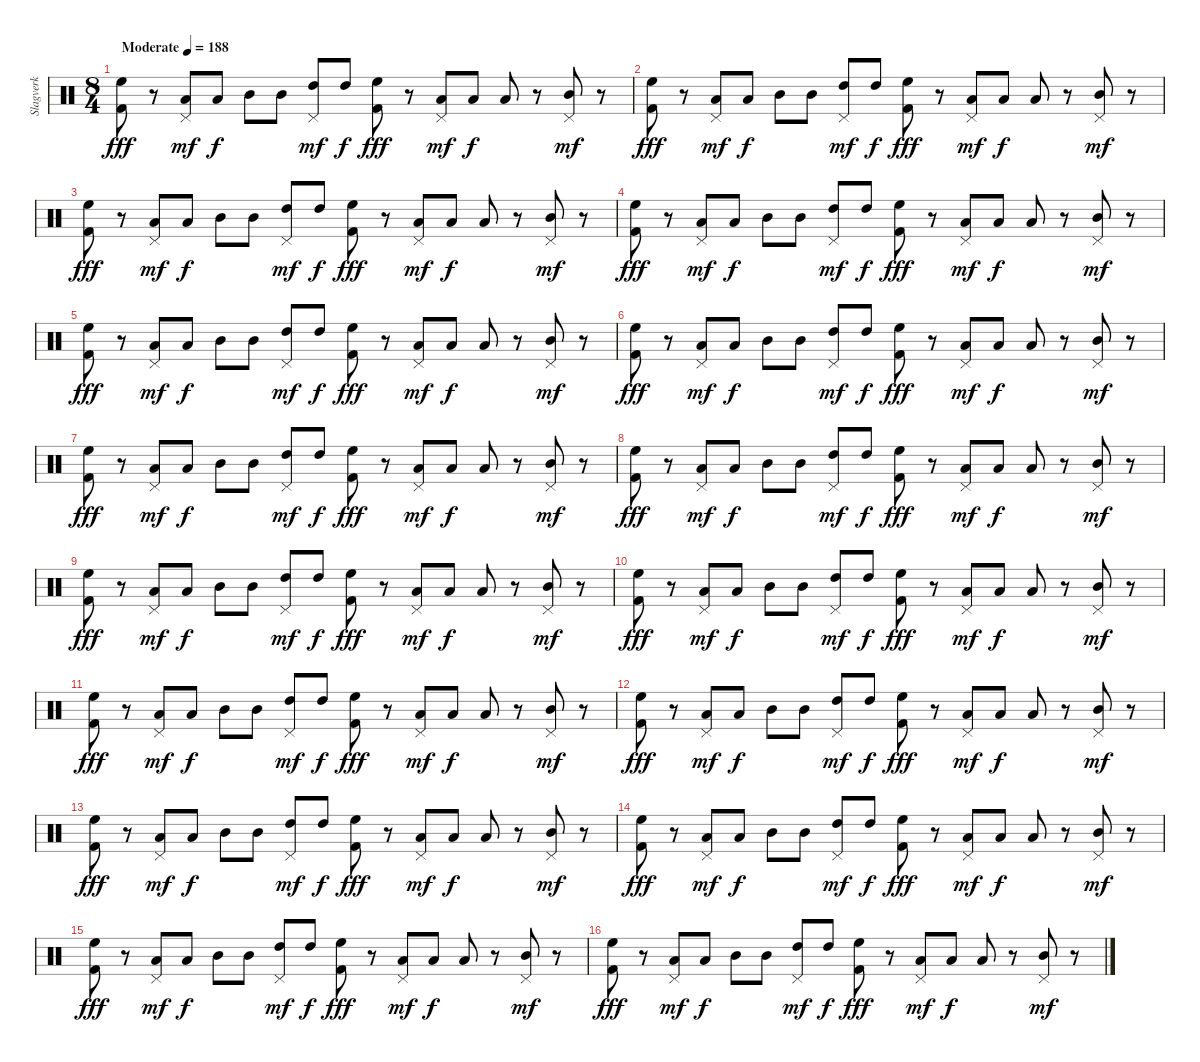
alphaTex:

\track ("Slagverk" "Slagverk") {instrument percussion}
\staff {score}
\articulation defaults
\ts (8 4)
\tempo (188 "Moderate")
\clef neutral
\ks c
("Kick (hit) 2" "High Floor Tom (hit)").8{dy fff} r.8 ("Pedal Hi-Hat (hit)" "Low Tom (hit)").8{dy mf} "Low Tom (hit)".8{dy f} "Mid Tom (hit)".8 "Mid Tom (hit)".8 ("Pedal Hi-Hat (hit)" "High Tom (hit)").8{dy mf} "High Tom (hit)".8{dy f} ("Kick (hit) 2" "High Floor Tom (hit)").8{dy fff} r.8 ("Pedal Hi-Hat (hit)" "Low Tom (hit)").8{dy mf} "Low Tom (hit)".8{dy f} "Low Tom (hit)".8 r.8 ("Pedal Hi-Hat (hit)" "Mid Tom (hit)").8{dy mf} r.8 |
("Kick (hit) 2" "High Floor Tom (hit)").8{dy fff} r.8 ("Pedal Hi-Hat (hit)" "Low Tom (hit)").8{dy mf} "Low Tom (hit)".8{dy f} "Mid Tom (hit)".8 "Mid Tom (hit)".8 ("Pedal Hi-Hat (hit)" "High Tom (hit)").8{dy mf} "High Tom (hit)".8{dy f} ("Kick (hit) 2" "High Floor Tom (hit)").8{dy fff} r.8 ("Pedal Hi-Hat (hit)" "Low Tom (hit)").8{dy mf} "Low Tom (hit)".8{dy f} "Low Tom (hit)".8 r.8 ("Pedal Hi-Hat (hit)" "Mid Tom (hit)").8{dy mf} r.8 |
("Kick (hit) 2" "High Floor Tom (hit)").8{dy fff} r.8 ("Pedal Hi-Hat (hit)" "Low Tom (hit)").8{dy mf} "Low Tom (hit)".8{dy f} "Mid Tom (hit)".8 "Mid Tom (hit)".8 ("Pedal Hi-Hat (hit)" "High Tom (hit)").8{dy mf} "High Tom (hit)".8{dy f} ("Kick (hit) 2" "High Floor Tom (hit)").8{dy fff} r.8 ("Pedal Hi-Hat (hit)" "Low Tom (hit)").8{dy mf} "Low Tom (hit)".8{dy f} "Low Tom (hit)".8 r.8 ("Pedal Hi-Hat (hit)" "Mid Tom (hit)").8{dy mf} r.8 |
("Kick (hit) 2" "High Floor Tom (hit)").8{dy fff} r.8 ("Pedal Hi-Hat (hit)" "Low Tom (hit)").8{dy mf} "Low Tom (hit)".8{dy f} "Mid Tom (hit)".8 "Mid Tom (hit)".8 ("Pedal Hi-Hat (hit)" "High Tom (hit)").8{dy mf} "High Tom (hit)".8{dy f} ("Kick (hit) 2" "High Floor Tom (hit)").8{dy fff} r.8 ("Pedal Hi-Hat (hit)" "Low Tom (hit)").8{dy mf} "Low Tom (hit)".8{dy f} "Low Tom (hit)".8 r.8 ("Pedal Hi-Hat (hit)" "Mid Tom (hit)").8{dy mf} r.8 |
("Kick (hit) 2" "High Floor Tom (hit)").8{dy fff} r.8 ("Pedal Hi-Hat (hit)" "Low Tom (hit)").8{dy mf} "Low Tom (hit)".8{dy f} "Mid Tom (hit)".8 "Mid Tom (hit)".8 ("Pedal Hi-Hat (hit)" "High Tom (hit)").8{dy mf} "High Tom (hit)".8{dy f} ("Kick (hit) 2" "High Floor Tom (hit)").8{dy fff} r.8 ("Pedal Hi-Hat (hit)" "Low Tom (hit)").8{dy mf} "Low Tom (hit)".8{dy f} "Low Tom (hit)".8 r.8 ("Pedal Hi-Hat (hit)" "Mid Tom (hit)").8{dy mf} r.8 |
("Kick (hit) 2" "High Floor Tom (hit)").8{dy fff} r.8 ("Pedal Hi-Hat (hit)" "Low Tom (hit)").8{dy mf} "Low Tom (hit)".8{dy f} "Mid Tom (hit)".8 "Mid Tom (hit)".8 ("Pedal Hi-Hat (hit)" "High Tom (hit)").8{dy mf} "High Tom (hit)".8{dy f} ("Kick (hit) 2" "High Floor Tom (hit)").8{dy fff} r.8 ("Pedal Hi-Hat (hit)" "Low Tom (hit)").8{dy mf} "Low Tom (hit)".8{dy f} "Low Tom (hit)".8 r.8 ("Pedal Hi-Hat (hit)" "Mid Tom (hit)").8{dy mf} r.8 |
("Kick (hit) 2" "High Floor Tom (hit)").8{dy fff} r.8 ("Pedal Hi-Hat (hit)" "Low Tom (hit)").8{dy mf} "Low Tom (hit)".8{dy f} "Mid Tom (hit)".8 "Mid Tom (hit)".8 ("Pedal Hi-Hat (hit)" "High Tom (hit)").8{dy mf} "High Tom (hit)".8{dy f} ("Kick (hit) 2" "High Floor Tom (hit)").8{dy fff} r.8 ("Pedal Hi-Hat (hit)" "Low Tom (hit)").8{dy mf} "Low Tom (hit)".8{dy f} "Low Tom (hit)".8 r.8 ("Pedal Hi-Hat (hit)" "Mid Tom (hit)").8{dy mf} r.8 |
("Kick (hit) 2" "High Floor Tom (hit)").8{dy fff} r.8 ("Pedal Hi-Hat (hit)" "Low Tom (hit)").8{dy mf} "Low Tom (hit)".8{dy f} "Mid Tom (hit)".8 "Mid Tom (hit)".8 ("Pedal Hi-Hat (hit)" "High Tom (hit)").8{dy mf} "High Tom (hit)".8{dy f} ("Kick (hit) 2" "High Floor Tom (hit)").8{dy fff} r.8 ("Pedal Hi-Hat (hit)" "Low Tom (hit)").8{dy mf} "Low Tom (hit)".8{dy f} "Low Tom (hit)".8 r.8 ("Pedal Hi-Hat (hit)" "Mid Tom (hit)").8{dy mf} r.8 |
("Kick (hit) 2" "High Floor Tom (hit)").8{dy fff} r.8 ("Pedal Hi-Hat (hit)" "Low Tom (hit)").8{dy mf} "Low Tom (hit)".8{dy f} "Mid Tom (hit)".8 "Mid Tom (hit)".8 ("Pedal Hi-Hat (hit)" "High Tom (hit)").8{dy mf} "High Tom (hit)".8{dy f} ("Kick (hit) 2" "High Floor Tom (hit)").8{dy fff} r.8 ("Pedal Hi-Hat (hit)" "Low Tom (hit)").8{dy mf} "Low Tom (hit)".8{dy f} "Low Tom (hit)".8 r.8 ("Pedal Hi-Hat (hit)" "Mid Tom (hit)").8{dy mf} r.8 |
("Kick (hit) 2" "High Floor Tom (hit)").8{dy fff} r.8 ("Pedal Hi-Hat (hit)" "Low Tom (hit)").8{dy mf} "Low Tom (hit)".8{dy f} "Mid Tom (hit)".8 "Mid Tom (hit)".8 ("Pedal Hi-Hat (hit)" "High Tom (hit)").8{dy mf} "High Tom (hit)".8{dy f} ("Kick (hit) 2" "High Floor Tom (hit)").8{dy fff} r.8 ("Pedal Hi-Hat (hit)" "Low Tom (hit)").8{dy mf} "Low Tom (hit)".8{dy f} "Low Tom (hit)".8 r.8 ("Pedal Hi-Hat (hit)" "Mid Tom (hit)").8{dy mf} r.8 |
("Kick (hit) 2" "High Floor Tom (hit)").8{dy fff} r.8 ("Pedal Hi-Hat (hit)" "Low Tom (hit)").8{dy mf} "Low Tom (hit)".8{dy f} "Mid Tom (hit)".8 "Mid Tom (hit)".8 ("Pedal Hi-Hat (hit)" "High Tom (hit)").8{dy mf} "High Tom (hit)".8{dy f} ("Kick (hit) 2" "High Floor Tom (hit)").8{dy fff} r.8 ("Pedal Hi-Hat (hit)" "Low Tom (hit)").8{dy mf} "Low Tom (hit)".8{dy f} "Low Tom (hit)".8 r.8 ("Pedal Hi-Hat (hit)" "Mid Tom (hit)").8{dy mf} r.8 |
("Kick (hit) 2" "High Floor Tom (hit)").8{dy fff} r.8 ("Pedal Hi-Hat (hit)" "Low Tom (hit)").8{dy mf} "Low Tom (hit)".8{dy f} "Mid Tom (hit)".8 "Mid Tom (hit)".8 ("Pedal Hi-Hat (hit)" "High Tom (hit)").8{dy mf} "High Tom (hit)".8{dy f} ("Kick (hit) 2" "High Floor Tom (hit)").8{dy fff} r.8 ("Pedal Hi-Hat (hit)" "Low Tom (hit)").8{dy mf} "Low Tom (hit)".8{dy f} "Low Tom (hit)".8 r.8 ("Pedal Hi-Hat (hit)" "Mid Tom (hit)").8{dy mf} r.8 |
("Kick (hit) 2" "High Floor Tom (hit)").8{dy fff} r.8 ("Pedal Hi-Hat (hit)" "Low Tom (hit)").8{dy mf} "Low Tom (hit)".8{dy f} "Mid Tom (hit)".8 "Mid Tom (hit)".8 ("Pedal Hi-Hat (hit)" "High Tom (hit)").8{dy mf} "High Tom (hit)".8{dy f} ("Kick (hit) 2" "High Floor Tom (hit)").8{dy fff} r.8 ("Pedal Hi-Hat (hit)" "Low Tom (hit)").8{dy mf} "Low Tom (hit)".8{dy f} "Low Tom (hit)".8 r.8 ("Pedal Hi-Hat (hit)" "Mid Tom (hit)").8{dy mf} r.8 |
("Kick (hit) 2" "High Floor Tom (hit)").8{dy fff} r.8 ("Pedal Hi-Hat (hit)" "Low Tom (hit)").8{dy mf} "Low Tom (hit)".8{dy f} "Mid Tom (hit)".8 "Mid Tom (hit)".8 ("Pedal Hi-Hat (hit)" "High Tom (hit)").8{dy mf} "High Tom (hit)".8{dy f} ("Kick (hit) 2" "High Floor Tom (hit)").8{dy fff} r.8 ("Pedal Hi-Hat (hit)" "Low Tom (hit)").8{dy mf} "Low Tom (hit)".8{dy f} "Low Tom (hit)".8 r.8 ("Pedal Hi-Hat (hit)" "Mid Tom (hit)").8{dy mf} r.8 |
("Kick (hit) 2" "High Floor Tom (hit)").8{dy fff} r.8 ("Pedal Hi-Hat (hit)" "Low Tom (hit)").8{dy mf} "Low Tom (hit)".8{dy f} "Mid Tom (hit)".8 "Mid Tom (hit)".8 ("Pedal Hi-Hat (hit)" "High Tom (hit)").8{dy mf} "High Tom (hit)".8{dy f} ("Kick (hit) 2" "High Floor Tom (hit)").8{dy fff} r.8 ("Pedal Hi-Hat (hit)" "Low Tom (hit)").8{dy mf} "Low Tom (hit)".8{dy f} "Low Tom (hit)".8 r.8 ("Pedal Hi-Hat (hit)" "Mid Tom (hit)").8{dy mf} r.8 |
("Kick (hit) 2" "High Floor Tom (hit)").8{dy fff} r.8 ("Pedal Hi-Hat (hit)" "Low Tom (hit)").8{dy mf} "Low Tom (hit)".8{dy f} "Mid Tom (hit)".8 "Mid Tom (hit)".8 ("Pedal Hi-Hat (hit)" "High Tom (hit)").8{dy mf} "High Tom (hit)".8{dy f} ("Kick (hit) 2" "High Floor Tom (hit)").8{dy fff} r.8 ("Pedal Hi-Hat (hit)" "Low Tom (hit)").8{dy mf} "Low Tom (hit)".8{dy f} "Low Tom (hit)".8 r.8 ("Pedal Hi-Hat (hit)" "Mid Tom (hit)").8{dy mf} r.8
